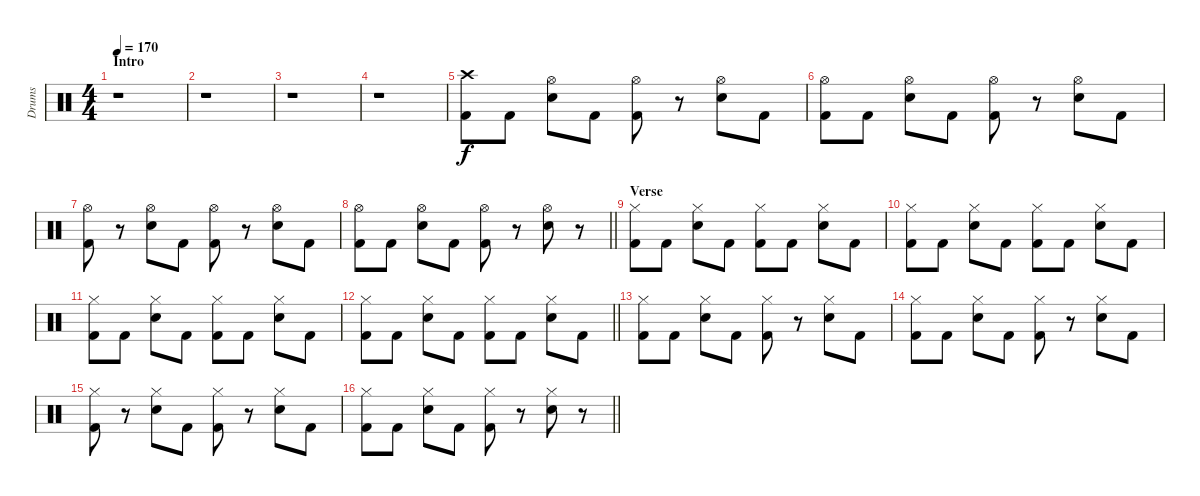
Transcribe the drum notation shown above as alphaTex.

\track ("Drums" "Drums") {instrument percussion}
\staff {score}
\articulation defaults
\ts (4 4)
\section ("" "Intro")
\tempo 170
\clef neutral
\ks c
r.1{dy f} |
r.1 |
r.1 |
r.1 |
("Crash high (hit)" "Kick (hit) 2").8 "Kick (hit) 2".8 ("Hi-Hat (open)" "Electric Snare (hit)").8 "Kick (hit) 2".8 ("Hi-Hat (open)" "Kick (hit) 2").8 r.8 ("Hi-Hat (open)" "Electric Snare (hit)").8 "Kick (hit) 2".8 |
("Hi-Hat (open)" "Kick (hit) 2").8 "Kick (hit) 2".8 ("Hi-Hat (open)" "Electric Snare (hit)").8 "Kick (hit) 2".8 ("Hi-Hat (open)" "Kick (hit) 2").8 r.8 ("Hi-Hat (open)" "Electric Snare (hit)").8 "Kick (hit) 2".8 |
("Hi-Hat (open)" "Kick (hit) 2").8 r.8 ("Hi-Hat (open)" "Electric Snare (hit)").8 "Kick (hit) 2".8 ("Hi-Hat (open)" "Kick (hit) 2").8 r.8 ("Hi-Hat (open)" "Electric Snare (hit)").8 "Kick (hit) 2".8 |
\barLineRight lightlight
("Hi-Hat (open)" "Kick (hit) 2").8 "Kick (hit) 2".8 ("Hi-Hat (open)" "Electric Snare (hit)").8 "Kick (hit) 2".8 ("Hi-Hat (open)" "Kick (hit) 2").8 r.8 ("Hi-Hat (open)" "Electric Snare (hit)").8 r.8 |
\section ("" "Verse")
("Hi-Hat (closed)" "Kick (hit) 2").8 "Kick (hit) 2".8 ("Hi-Hat (closed)" "Electric Snare (hit)").8 "Kick (hit) 2".8 ("Hi-Hat (closed)" "Kick (hit) 2").8 "Kick (hit) 2".8 ("Hi-Hat (closed)" "Electric Snare (hit)").8 "Kick (hit) 2".8 |
("Hi-Hat (closed)" "Kick (hit) 2").8 "Kick (hit) 2".8 ("Hi-Hat (closed)" "Electric Snare (hit)").8 "Kick (hit) 2".8 ("Hi-Hat (closed)" "Kick (hit) 2").8 "Kick (hit) 2".8 ("Hi-Hat (closed)" "Electric Snare (hit)").8 "Kick (hit) 2".8 |
("Hi-Hat (closed)" "Kick (hit) 2").8 "Kick (hit) 2".8 ("Hi-Hat (closed)" "Electric Snare (hit)").8 "Kick (hit) 2".8 ("Hi-Hat (closed)" "Kick (hit) 2").8 "Kick (hit) 2".8 ("Hi-Hat (closed)" "Electric Snare (hit)").8 "Kick (hit) 2".8 |
\barLineRight lightlight
("Hi-Hat (closed)" "Kick (hit) 2").8 "Kick (hit) 2".8 ("Hi-Hat (closed)" "Electric Snare (hit)").8 "Kick (hit) 2".8 ("Hi-Hat (closed)" "Kick (hit) 2").8 "Kick (hit) 2".8 ("Hi-Hat (closed)" "Electric Snare (hit)").8 "Kick (hit) 2".8 |
("Hi-Hat (closed)" "Kick (hit) 2").8 "Kick (hit) 2".8 ("Hi-Hat (closed)" "Electric Snare (hit)").8 "Kick (hit) 2".8 ("Hi-Hat (closed)" "Kick (hit) 2").8 r.8 ("Hi-Hat (closed)" "Electric Snare (hit)").8 "Kick (hit) 2".8 |
("Hi-Hat (closed)" "Kick (hit) 2").8 "Kick (hit) 2".8 ("Hi-Hat (closed)" "Electric Snare (hit)").8 "Kick (hit) 2".8 ("Hi-Hat (closed)" "Kick (hit) 2").8 r.8 ("Hi-Hat (closed)" "Electric Snare (hit)").8 "Kick (hit) 2".8 |
("Hi-Hat (closed)" "Kick (hit) 2").8 r.8 ("Hi-Hat (closed)" "Electric Snare (hit)").8 "Kick (hit) 2".8 ("Hi-Hat (closed)" "Kick (hit) 2").8 r.8 ("Hi-Hat (closed)" "Electric Snare (hit)").8 "Kick (hit) 2".8 |
\barLineRight lightlight
("Hi-Hat (closed)" "Kick (hit) 2").8 "Kick (hit) 2".8 ("Hi-Hat (closed)" "Electric Snare (hit)").8 "Kick (hit) 2".8 ("Hi-Hat (closed)" "Kick (hit) 2").8 r.8 ("Hi-Hat (closed)" "Electric Snare (hit)").8 r.8
